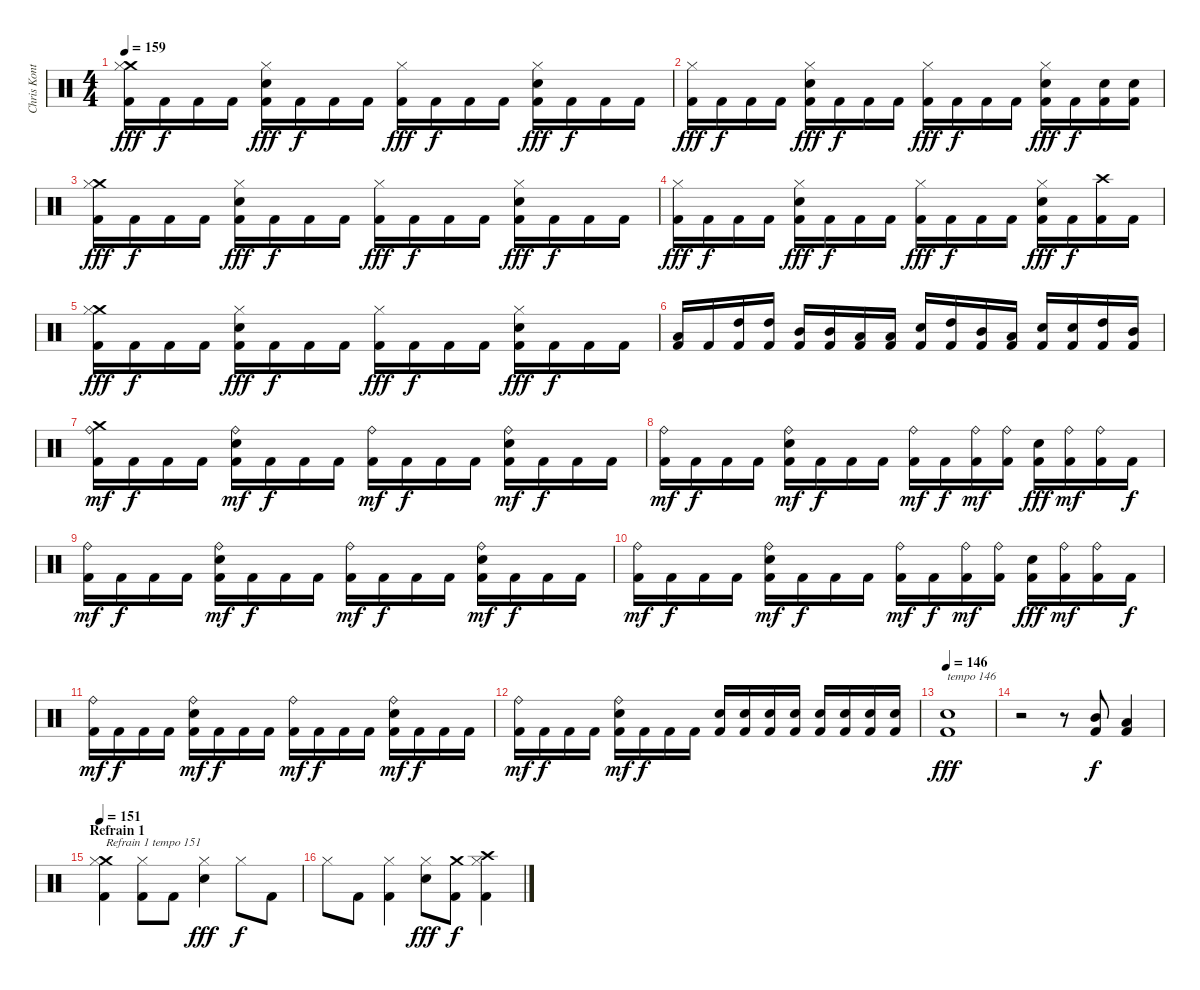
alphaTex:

\track ("Chris Kontos" "Chris Kont") {instrument percussion}
\staff {score}
\articulation defaults
\ts (4 4)
\tempo 159
\clef neutral
\ks c
("Crash medium (hit)" "Hi-Hat (closed)" "Kick (hit) 2").16{dy fff} "Kick (hit) 2".16{dy f} "Kick (hit) 2".16 "Kick (hit) 2".16 ("Electric Snare (hit)" "Hi-Hat (closed)" "Kick (hit) 2").16{dy fff} "Kick (hit) 2".16{dy f} "Kick (hit) 2".16 "Kick (hit) 2".16 ("Hi-Hat (closed)" "Kick (hit) 2").16{dy fff} "Kick (hit) 2".16{dy f} "Kick (hit) 2".16 "Kick (hit) 2".16 ("Electric Snare (hit)" "Hi-Hat (closed)" "Kick (hit) 2").16{dy fff} "Kick (hit) 2".16{dy f} "Kick (hit) 2".16 "Kick (hit) 2".16 |
("Hi-Hat (closed)" "Kick (hit) 2").16{dy fff} "Kick (hit) 2".16{dy f} "Kick (hit) 2".16 "Kick (hit) 2".16 ("Electric Snare (hit)" "Hi-Hat (closed)" "Kick (hit) 2").16{dy fff} "Kick (hit) 2".16{dy f} "Kick (hit) 2".16 "Kick (hit) 2".16 ("Hi-Hat (closed)" "Kick (hit) 2").16{dy fff} "Kick (hit) 2".16{dy f} "Kick (hit) 2".16 "Kick (hit) 2".16 ("Electric Snare (hit)" "Hi-Hat (closed)" "Kick (hit) 2").16{dy fff} "Kick (hit) 2".16{dy f} ("Electric Snare (hit)" "Kick (hit) 2").16 ("Electric Snare (hit)" "Kick (hit) 2").16 |
("Crash medium (hit)" "Hi-Hat (closed)" "Kick (hit) 2").16{dy fff} "Kick (hit) 2".16{dy f} "Kick (hit) 2".16 "Kick (hit) 2".16 ("Electric Snare (hit)" "Hi-Hat (closed)" "Kick (hit) 2").16{dy fff} "Kick (hit) 2".16{dy f} "Kick (hit) 2".16 "Kick (hit) 2".16 ("Hi-Hat (closed)" "Kick (hit) 2").16{dy fff} "Kick (hit) 2".16{dy f} "Kick (hit) 2".16 "Kick (hit) 2".16 ("Electric Snare (hit)" "Hi-Hat (closed)" "Kick (hit) 2").16{dy fff} "Kick (hit) 2".16{dy f} "Kick (hit) 2".16 "Kick (hit) 2".16 |
("Hi-Hat (closed)" "Kick (hit) 2").16{dy fff} "Kick (hit) 2".16{dy f} "Kick (hit) 2".16 "Kick (hit) 2".16 ("Electric Snare (hit)" "Hi-Hat (closed)" "Kick (hit) 2").16{dy fff} "Kick (hit) 2".16{dy f} "Kick (hit) 2".16 "Kick (hit) 2".16 ("Hi-Hat (closed)" "Kick (hit) 2").16{dy fff} "Kick (hit) 2".16{dy f} "Kick (hit) 2".16 "Kick (hit) 2".16 ("Electric Snare (hit)" "Hi-Hat (closed)" "Kick (hit) 2").16{dy fff} "Kick (hit) 2".16{dy f} ("Crash high (hit)" "Kick (hit) 2").16 "Kick (hit) 2".16 |
("Crash medium (hit)" "Hi-Hat (closed)" "Kick (hit) 2").16{dy fff} "Kick (hit) 2".16{dy f} "Kick (hit) 2".16 "Kick (hit) 2".16 ("Electric Snare (hit)" "Hi-Hat (closed)" "Kick (hit) 2").16{dy fff} "Kick (hit) 2".16{dy f} "Kick (hit) 2".16 "Kick (hit) 2".16 ("Hi-Hat (closed)" "Kick (hit) 2").16{dy fff} "Kick (hit) 2".16{dy f} "Kick (hit) 2".16 "Kick (hit) 2".16 ("Electric Snare (hit)" "Hi-Hat (closed)" "Kick (hit) 2").16{dy fff} "Kick (hit) 2".16{dy f} "Kick (hit) 2".16 "Kick (hit) 2".16 |
("Low Tom (hit)" "Kick (hit) 2").16 "Kick (hit) 2".16 ("High Tom (hit)" "Kick (hit) 2").16 ("High Tom (hit)" "Kick (hit) 2").16 ("Mid Tom (hit)" "Kick (hit) 2").16 ("Mid Tom (hit)" "Kick (hit) 2").16 ("Low Tom (hit)" "Kick (hit) 2").16 ("Low Tom (hit)" "Kick (hit) 2").16 ("Electric Snare (hit)" "Kick (hit) 2").16 ("High Tom (hit)" "Kick (hit) 2").16 ("Mid Tom (hit)" "Kick (hit) 2").16 ("Low Tom (hit)" "Kick (hit) 2").16 ("Electric Snare (hit)" "Kick (hit) 2").16 ("Electric Snare (hit)" "Kick (hit) 2").16 ("High Tom (hit)" "Kick (hit) 2").16 ("Mid Tom (hit)" "Kick (hit) 2").16 |
("Crash medium (hit)" "Ride (bell)" "Kick (hit) 2").16{dy mf} "Kick (hit) 2".16{dy f} "Kick (hit) 2".16 "Kick (hit) 2".16 ("Electric Snare (hit)" "Ride (bell)" "Kick (hit) 2").16{dy mf} "Kick (hit) 2".16{dy f} "Kick (hit) 2".16 "Kick (hit) 2".16 ("Ride (bell)" "Kick (hit) 2").16{dy mf} "Kick (hit) 2".16{dy f} "Kick (hit) 2".16 "Kick (hit) 2".16 ("Electric Snare (hit)" "Ride (bell)" "Kick (hit) 2").16{dy mf} "Kick (hit) 2".16{dy f} "Kick (hit) 2".16 "Kick (hit) 2".16 |
("Ride (bell)" "Kick (hit) 2").16{dy mf} "Kick (hit) 2".16{dy f} "Kick (hit) 2".16 "Kick (hit) 2".16 ("Electric Snare (hit)" "Ride (bell)" "Kick (hit) 2").16{dy mf} "Kick (hit) 2".16{dy f} "Kick (hit) 2".16 "Kick (hit) 2".16 ("Ride (bell)" "Kick (hit) 2").16{dy mf} "Kick (hit) 2".16{dy f} ("Ride (bell)" "Kick (hit) 2").16{dy mf} ("Ride (bell)" "Kick (hit) 2").16 ("Electric Snare (hit)" "Kick (hit) 2").16{dy fff} ("Ride (bell)" "Kick (hit) 2").16{dy mf} ("Ride (bell)" "Kick (hit) 2").16 "Kick (hit) 2".16{dy f} |
("Ride (bell)" "Kick (hit) 2").16{dy mf} "Kick (hit) 2".16{dy f} "Kick (hit) 2".16 "Kick (hit) 2".16 ("Electric Snare (hit)" "Ride (bell)" "Kick (hit) 2").16{dy mf} "Kick (hit) 2".16{dy f} "Kick (hit) 2".16 "Kick (hit) 2".16 ("Ride (bell)" "Kick (hit) 2").16{dy mf} "Kick (hit) 2".16{dy f} "Kick (hit) 2".16 "Kick (hit) 2".16 ("Electric Snare (hit)" "Ride (bell)" "Kick (hit) 2").16{dy mf} "Kick (hit) 2".16{dy f} "Kick (hit) 2".16 "Kick (hit) 2".16 |
("Ride (bell)" "Kick (hit) 2").16{dy mf} "Kick (hit) 2".16{dy f} "Kick (hit) 2".16 "Kick (hit) 2".16 ("Electric Snare (hit)" "Ride (bell)" "Kick (hit) 2").16{dy mf} "Kick (hit) 2".16{dy f} "Kick (hit) 2".16 "Kick (hit) 2".16 ("Ride (bell)" "Kick (hit) 2").16{dy mf} "Kick (hit) 2".16{dy f} ("Ride (bell)" "Kick (hit) 2").16{dy mf} ("Ride (bell)" "Kick (hit) 2").16 ("Electric Snare (hit)" "Kick (hit) 2").16{dy fff} ("Ride (bell)" "Kick (hit) 2").16{dy mf} ("Ride (bell)" "Kick (hit) 2").16 "Kick (hit) 2".16{dy f} |
("Ride (bell)" "Kick (hit) 2").16{dy mf} "Kick (hit) 2".16{dy f} "Kick (hit) 2".16 "Kick (hit) 2".16 ("Electric Snare (hit)" "Ride (bell)" "Kick (hit) 2").16{dy mf} "Kick (hit) 2".16{dy f} "Kick (hit) 2".16 "Kick (hit) 2".16 ("Ride (bell)" "Kick (hit) 2").16{dy mf} "Kick (hit) 2".16{dy f} "Kick (hit) 2".16 "Kick (hit) 2".16 ("Electric Snare (hit)" "Ride (bell)" "Kick (hit) 2").16{dy mf} "Kick (hit) 2".16{dy f} "Kick (hit) 2".16 "Kick (hit) 2".16 |
("Ride (bell)" "Kick (hit) 2").16{dy mf} "Kick (hit) 2".16{dy f} "Kick (hit) 2".16 "Kick (hit) 2".16 ("Electric Snare (hit)" "Ride (bell)" "Kick (hit) 2").16{dy mf} "Kick (hit) 2".16{dy f} "Kick (hit) 2".16 "Kick (hit) 2".16 ("Electric Snare (hit)" "Kick (hit) 2").16 ("Electric Snare (hit)" "Kick (hit) 2").16 ("Electric Snare (hit)" "Kick (hit) 2").16 ("Electric Snare (hit)" "Kick (hit) 2").16 ("Electric Snare (hit)" "Kick (hit) 2").16 ("Electric Snare (hit)" "Kick (hit) 2").16 ("Electric Snare (hit)" "Kick (hit) 2").16 ("Electric Snare (hit)" "Kick (hit) 2").16 |
\tempo 146
("Electric Snare (hit)" "Kick (hit) 2").1{txt "tempo 146" dy fff} |
r.2 r.8 ("Mid Tom (hit)" "Kick (hit) 2").8{dy f} ("Low Tom (hit)" "Kick (hit) 2").4 |
\section ("" "Refrain 1")
\tempo 151
("Crash medium (hit)" "Hi-Hat (closed)" "Kick (hit) 2").4{txt "Refrain 1 tempo 151"} ("Hi-Hat (closed)" "Kick (hit) 2").8 "Kick (hit) 2".8 ("Electric Snare (hit)" "Hi-Hat (closed)").4{dy fff} "Hi-Hat (closed)".8{dy f} "Kick (hit) 2".8 |
"Hi-Hat (closed)".8 "Kick (hit) 2".8 ("Hi-Hat (closed)" "Kick (hit) 2").4 ("Electric Snare (hit)" "Hi-Hat (closed)").8{dy fff} ("Crash medium (hit)" "Kick (hit) 2").8{dy f} ("Crash high (hit)" "Hi-Hat (closed)" "Kick (hit) 2").4
